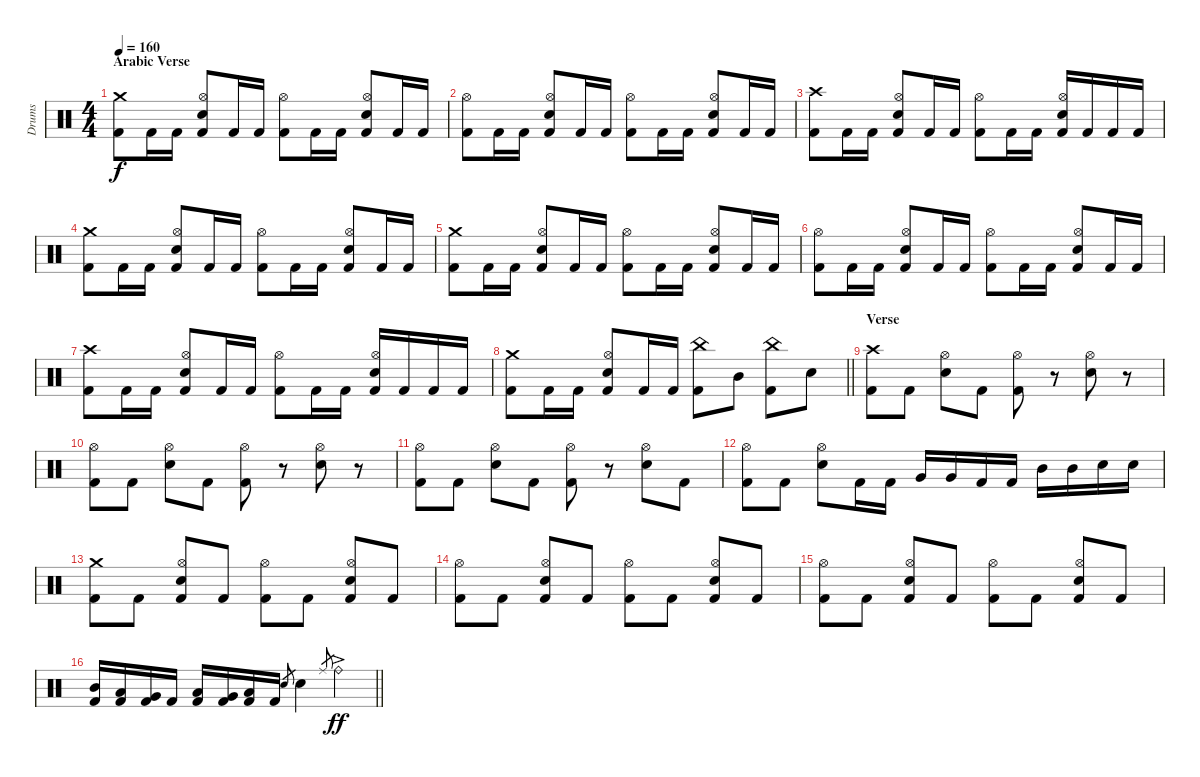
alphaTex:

\track ("Drums" "Drums") {instrument percussion}
\staff {score}
\articulation defaults
\ts (4 4)
\section ("" "Arabic Verse")
\tempo 160
\clef neutral
\ks aminor
("Crash medium (hit)" "Kick (hit) 2").8{dy f} "Kick (hit) 2".16 "Kick (hit) 2".16 ("Hi-Hat (open)" "Electric Snare (hit)" "Kick (hit) 2").8 "Kick (hit) 2".16 "Kick (hit) 2".16 ("Hi-Hat (open)" "Kick (hit) 2").8 "Kick (hit) 2".16 "Kick (hit) 2".16 ("Hi-Hat (open)" "Electric Snare (hit)" "Kick (hit) 2").8 "Kick (hit) 2".16 "Kick (hit) 2".16 |
("Hi-Hat (open)" "Kick (hit) 2").8 "Kick (hit) 2".16 "Kick (hit) 2".16 ("Hi-Hat (open)" "Electric Snare (hit)" "Kick (hit) 2").8 "Kick (hit) 2".16 "Kick (hit) 2".16 ("Hi-Hat (open)" "Kick (hit) 2").8 "Kick (hit) 2".16 "Kick (hit) 2".16 ("Hi-Hat (open)" "Electric Snare (hit)" "Kick (hit) 2").8 "Kick (hit) 2".16 "Kick (hit) 2".16 |
("Crash high (hit)" "Kick (hit) 2").8 "Kick (hit) 2".16 "Kick (hit) 2".16 ("Hi-Hat (open)" "Electric Snare (hit)" "Kick (hit) 2").8 "Kick (hit) 2".16 "Kick (hit) 2".16 ("Hi-Hat (open)" "Kick (hit) 2").8 "Kick (hit) 2".16 "Kick (hit) 2".16 ("Hi-Hat (open)" "Electric Snare (hit)" "Kick (hit) 2").16 "Kick (hit) 2".16 "Kick (hit) 2".16 "Kick (hit) 2".16 |
("Crash medium (hit)" "Kick (hit) 2").8 "Kick (hit) 2".16 "Kick (hit) 2".16 ("Hi-Hat (open)" "Electric Snare (hit)" "Kick (hit) 2").8 "Kick (hit) 2".16 "Kick (hit) 2".16 ("Hi-Hat (open)" "Kick (hit) 2").8 "Kick (hit) 2".16 "Kick (hit) 2".16 ("Hi-Hat (open)" "Electric Snare (hit)" "Kick (hit) 2").8 "Kick (hit) 2".16 "Kick (hit) 2".16 |
("Crash medium (hit)" "Kick (hit) 2").8 "Kick (hit) 2".16 "Kick (hit) 2".16 ("Hi-Hat (open)" "Electric Snare (hit)" "Kick (hit) 2").8 "Kick (hit) 2".16 "Kick (hit) 2".16 ("Hi-Hat (open)" "Kick (hit) 2").8 "Kick (hit) 2".16 "Kick (hit) 2".16 ("Hi-Hat (open)" "Electric Snare (hit)" "Kick (hit) 2").8 "Kick (hit) 2".16 "Kick (hit) 2".16 |
("Hi-Hat (open)" "Kick (hit) 2").8 "Kick (hit) 2".16 "Kick (hit) 2".16 ("Hi-Hat (open)" "Electric Snare (hit)" "Kick (hit) 2").8 "Kick (hit) 2".16 "Kick (hit) 2".16 ("Hi-Hat (open)" "Kick (hit) 2").8 "Kick (hit) 2".16 "Kick (hit) 2".16 ("Hi-Hat (open)" "Electric Snare (hit)" "Kick (hit) 2").8 "Kick (hit) 2".16 "Kick (hit) 2".16 |
("Crash high (hit)" "Kick (hit) 2").8 "Kick (hit) 2".16 "Kick (hit) 2".16 ("Hi-Hat (open)" "Electric Snare (hit)" "Kick (hit) 2").8 "Kick (hit) 2".16 "Kick (hit) 2".16 ("Hi-Hat (open)" "Kick (hit) 2").8 "Kick (hit) 2".16 "Kick (hit) 2".16 ("Hi-Hat (open)" "Electric Snare (hit)" "Kick (hit) 2").16 "Kick (hit) 2".16 "Kick (hit) 2".16 "Kick (hit) 2".16 |
\barLineRight lightlight
("Crash medium (hit)" "Kick (hit) 2").8 "Kick (hit) 2".16 "Kick (hit) 2".16 ("Hi-Hat (open)" "Electric Snare (hit)" "Kick (hit) 2").8 "Kick (hit) 2".16 "Kick (hit) 2".16 ("China (hit)" "Kick (hit) 2").8 "Mid Tom (hit)".8 ("China (hit)" "Kick (hit) 2").8 "Electric Snare (hit)".8 |
\section ("" "Verse")
("Crash high (hit)" "Kick (hit) 2").8 "Kick (hit) 2".8 ("Hi-Hat (open)" "Electric Snare (hit)").8 "Kick (hit) 2".8 ("Hi-Hat (open)" "Kick (hit) 2").8 r.8 ("Hi-Hat (open)" "Electric Snare (hit)").8 r.8 |
("Hi-Hat (open)" "Kick (hit) 2").8 "Kick (hit) 2".8 ("Hi-Hat (open)" "Electric Snare (hit)").8 "Kick (hit) 2".8 ("Hi-Hat (open)" "Kick (hit) 2").8 r.8 ("Hi-Hat (open)" "Electric Snare (hit)").8 r.8 |
("Hi-Hat (open)" "Kick (hit) 2").8 "Kick (hit) 2".8 ("Hi-Hat (open)" "Electric Snare (hit)").8 "Kick (hit) 2".8 ("Hi-Hat (open)" "Kick (hit) 2").8 r.8 ("Hi-Hat (open)" "Electric Snare (hit)").8 "Kick (hit) 2".8 |
("Hi-Hat (open)" "Kick (hit) 2").8 "Kick (hit) 2".8 ("Hi-Hat (open)" "Electric Snare (hit)").8 "Kick (hit) 2".16 "Kick (hit) 2".16 "Very Low Tom (hit)".16 "Very Low Tom (hit)".16 "Kick (hit) 2".16 "Kick (hit) 2".16 "Mid Tom (hit)".16 "Mid Tom (hit)".16 "Snare (hit) 2".16 "Electric Snare (hit)".16 |
("Crash medium (hit)" "Kick (hit) 2").8 "Kick (hit) 2".8 ("Hi-Hat (open)" "Electric Snare (hit)" "Kick (hit) 2").8 "Kick (hit) 2".8 ("Hi-Hat (open)" "Kick (hit) 2").8 "Kick (hit) 2".8 ("Hi-Hat (open)" "Electric Snare (hit)" "Kick (hit) 2").8 "Kick (hit) 2".8 |
("Hi-Hat (open)" "Kick (hit) 2").8 "Kick (hit) 2".8 ("Hi-Hat (open)" "Electric Snare (hit)" "Kick (hit) 2").8 "Kick (hit) 2".8 ("Hi-Hat (open)" "Kick (hit) 2").8 "Kick (hit) 2".8 ("Hi-Hat (open)" "Electric Snare (hit)" "Kick (hit) 2").8 "Kick (hit) 2".8 |
("Hi-Hat (open)" "Kick (hit) 2").8 "Kick (hit) 2".8 ("Hi-Hat (open)" "Electric Snare (hit)" "Kick (hit) 2").8 "Kick (hit) 2".8 ("Hi-Hat (open)" "Kick (hit) 2").8 "Kick (hit) 2".8 ("Hi-Hat (open)" "Electric Snare (hit)" "Kick (hit) 2").8 "Kick (hit) 2".8 |
\barLineRight lightlight
("Mid Tom (hit)" "Kick (hit) 2").16 ("Low Tom (hit)" "Kick (hit) 2").16 ("Very Low Tom (hit)" "Kick (hit) 2").16 "Kick (hit) 2".16 ("Low Tom (hit)" "Kick (hit) 2").16 ("Very Low Tom (hit)" "Kick (hit) 2").16 ("Low Floor Tom (hit)" "Kick (hit) 2").16 "Kick (hit) 2".16 "Electric Snare (hit)".8{gr} "Electric Snare (hit)".4 "Ride (middle)".8{gr} "Ride (bell)"{ac}.4{dy ff}
